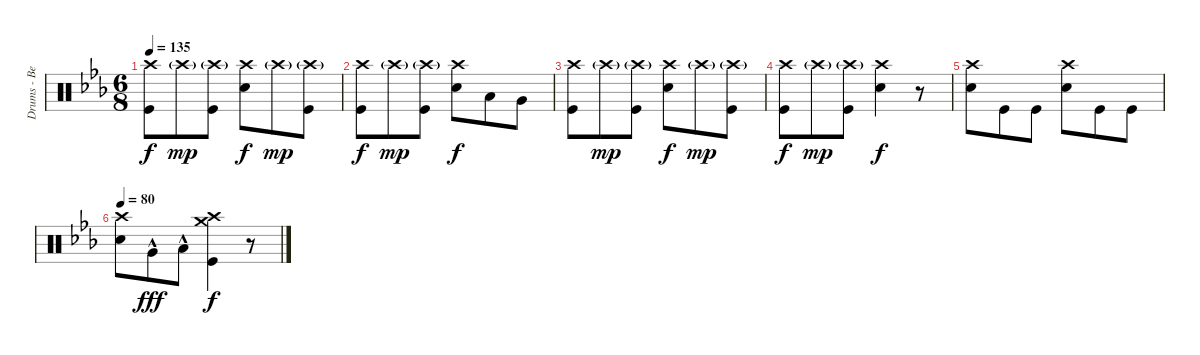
\track ("Drums - Ben Johnston" "Drums - Be") {instrument percussion}
\staff {score}
\articulation defaults
\ts (6 8)
\tempo 135
\clef neutral
\ks cminor
("Crash high (hit)" "Kick (hit)").8{dy f} "Crash high (hit)"{g}.8{dy mp} ("Crash high (hit)"{g} "Kick (hit)").8 ("Crash high (hit)" "Snare (hit) 2").8{dy f} "Crash high (hit)"{g}.8{dy mp} ("Crash high (hit)"{g} "Kick (hit)").8 |
("Crash high (hit)" "Kick (hit)").8{dy f} "Crash high (hit)"{g}.8{dy mp} ("Crash high (hit)"{g} "Kick (hit)").8 ("Crash high (hit)" "Snare (hit) 2").8{dy f} "Low Tom (hit)".8 "Very Low Tom (hit)".8 |
("Crash high (hit)" "Kick (hit)").8 "Crash high (hit)"{g}.8{dy mp} ("Crash high (hit)"{g} "Kick (hit)").8 ("Crash high (hit)" "Snare (hit) 2").8{dy f} "Crash high (hit)"{g}.8{dy mp} ("Crash high (hit)"{g} "Kick (hit)").8 |
("Crash high (hit)" "Kick (hit)").8{dy f} "Crash high (hit)"{g}.8{dy mp} ("Crash high (hit)"{g} "Kick (hit)").8 ("Crash high (hit)" "Snare (hit) 2").4{dy f} r.8 |
("Crash high (hit)" "Snare (hit) 2").8 "Kick (hit)".8 "Kick (hit)".8 ("Crash high (hit)" "Snare (hit) 2").8 "Kick (hit)".8 "Kick (hit)".8 |
\tempo 80
("Crash high (hit)" "Snare (hit) 2").8 "Very Low Tom (hit)"{hac}.8{dy fff} "Low Floor Tom (hit)"{hac}.8 ("Crash high (hit)" "Crash medium (hit)" "Kick (hit)").4{dy f} r.8
